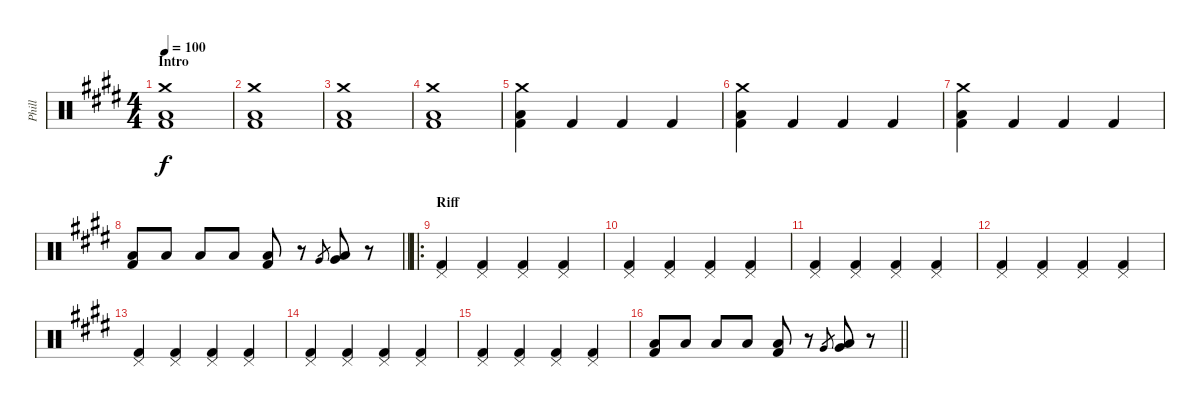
\track ("Phill" "Phill") {instrument percussion}
\staff {score}
\articulation defaults
\ts (4 4)
\section ("" "Intro")
\tempo 100
\clef neutral
\ks e
("Kick (hit) 2" "Low Floor Tom (hit)" "Crash medium (hit)").1{dy f} |
("Kick (hit) 2" "Low Floor Tom (hit)" "Crash medium (hit)").1 |
("Kick (hit) 2" "Low Floor Tom (hit)" "Crash medium (hit)").1 |
("Kick (hit) 2" "Low Floor Tom (hit)" "Crash medium (hit)").1 |
("Kick (hit) 2" "Low Floor Tom (hit)" "Crash medium (hit)").4 "Kick (hit) 2".4 "Kick (hit) 2".4 "Kick (hit) 2".4 |
("Kick (hit) 2" "Low Floor Tom (hit)" "Crash medium (hit)").4 "Kick (hit) 2".4 "Kick (hit) 2".4 "Kick (hit) 2".4 |
("Kick (hit) 2" "Low Floor Tom (hit)" "Crash medium (hit)").4 "Kick (hit) 2".4 "Kick (hit) 2".4 "Kick (hit) 2".4 |
\barLineRight lightlight
("Low Floor Tom (hit)" "Kick (hit) 2").8 "Low Floor Tom (hit)".8 "Low Floor Tom (hit)".8 "Low Floor Tom (hit)".8 ("Low Floor Tom (hit)" "Kick (hit) 2").8 r.8 "Very Low Tom (hit)".8{gr} ("Low Floor Tom (hit)" "Very Low Tom (hit)").8 r.8 |
\ro
\section ("" "Riff")
("Kick (hit) 2" "Pedal Hi-Hat (hit)").4 ("Kick (hit) 2" "Pedal Hi-Hat (hit)").4 ("Kick (hit) 2" "Pedal Hi-Hat (hit)").4 ("Kick (hit) 2" "Pedal Hi-Hat (hit)").4 |
("Kick (hit) 2" "Pedal Hi-Hat (hit)").4 ("Kick (hit) 2" "Pedal Hi-Hat (hit)").4 ("Kick (hit) 2" "Pedal Hi-Hat (hit)").4 ("Kick (hit) 2" "Pedal Hi-Hat (hit)").4 |
("Kick (hit) 2" "Pedal Hi-Hat (hit)").4 ("Kick (hit) 2" "Pedal Hi-Hat (hit)").4 ("Kick (hit) 2" "Pedal Hi-Hat (hit)").4 ("Kick (hit) 2" "Pedal Hi-Hat (hit)").4 |
("Kick (hit) 2" "Pedal Hi-Hat (hit)").4 ("Kick (hit) 2" "Pedal Hi-Hat (hit)").4 ("Kick (hit) 2" "Pedal Hi-Hat (hit)").4 ("Kick (hit) 2" "Pedal Hi-Hat (hit)").4 |
("Kick (hit) 2" "Pedal Hi-Hat (hit)").4 ("Kick (hit) 2" "Pedal Hi-Hat (hit)").4 ("Kick (hit) 2" "Pedal Hi-Hat (hit)").4 ("Kick (hit) 2" "Pedal Hi-Hat (hit)").4 |
("Kick (hit) 2" "Pedal Hi-Hat (hit)").4 ("Kick (hit) 2" "Pedal Hi-Hat (hit)").4 ("Kick (hit) 2" "Pedal Hi-Hat (hit)").4 ("Kick (hit) 2" "Pedal Hi-Hat (hit)").4 |
("Kick (hit) 2" "Pedal Hi-Hat (hit)").4 ("Kick (hit) 2" "Pedal Hi-Hat (hit)").4 ("Kick (hit) 2" "Pedal Hi-Hat (hit)").4 ("Kick (hit) 2" "Pedal Hi-Hat (hit)").4 |
\barLineRight lightlight
("Low Floor Tom (hit)" "Kick (hit) 2").8 "Low Floor Tom (hit)".8 "Low Floor Tom (hit)".8 "Low Floor Tom (hit)".8 ("Low Floor Tom (hit)" "Kick (hit) 2").8 r.8 "Very Low Tom (hit)".8{gr} ("Low Floor Tom (hit)" "Very Low Tom (hit)").8 r.8
